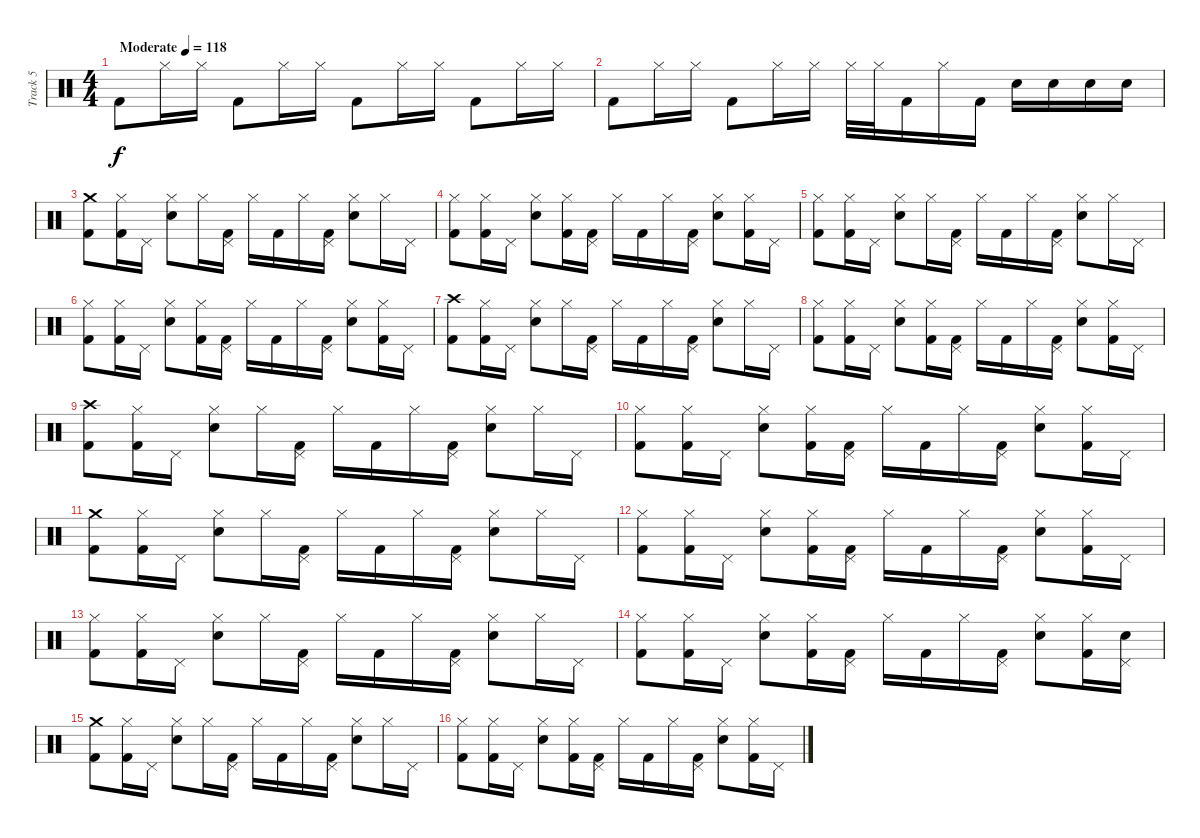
\track ("Track 5" "Track 5") {instrument percussion}
\staff {score}
\articulation defaults
\ts (4 4)
\tempo (118 "Moderate")
\clef neutral
\ks c "Kick (hit) 2".8{dy f} "Hi-Hat (closed)".16 "Hi-Hat (closed)".16 "Kick (hit) 2".8 "Hi-Hat (closed)".16 "Hi-Hat (closed)".16 "Kick (hit) 2".8 "Hi-Hat (closed)".16 "Hi-Hat (closed)".16 "Kick (hit) 2".8 "Hi-Hat (closed)".16 "Hi-Hat (closed)".16
|
"Kick (hit) 2".8 "Hi-Hat (closed)".16 "Hi-Hat (closed)".16 "Kick (hit) 2".8 "Hi-Hat (closed)".16 "Hi-Hat (closed)".16 "Hi-Hat (closed)".32 "Hi-Hat (closed)".32 "Kick (hit) 2".16 "Hi-Hat (closed)".16 "Kick (hit) 2".16 "Snare (hit) 2".16 "Snare (hit) 2".16 "Snare (hit) 2".16 "Snare (hit) 2".16 |
("Crash medium (hit)" "Kick (hit) 2").8 ("Hi-Hat (closed)" "Kick (hit) 2").16 "Pedal Hi-Hat (hit)".16 ("Hi-Hat (closed)" "Snare (hit) 2").8 "Hi-Hat (closed)".16 ("Pedal Hi-Hat (hit)" "Kick (hit) 2").16 "Hi-Hat (closed)".16 "Kick (hit) 2".16 "Hi-Hat (closed)".16 ("Pedal Hi-Hat (hit)" "Kick (hit) 2").16 ("Hi-Hat (closed)" "Snare (hit) 2").8 "Hi-Hat (closed)".16 "Pedal Hi-Hat (hit)".16 |
("Hi-Hat (closed)" "Kick (hit) 2").8 ("Hi-Hat (closed)" "Kick (hit) 2").16 "Pedal Hi-Hat (hit)".16 ("Hi-Hat (closed)" "Snare (hit) 2").8 ("Hi-Hat (closed)" "Kick (hit) 2").16 ("Pedal Hi-Hat (hit)" "Kick (hit) 2").16 "Hi-Hat (closed)".16 "Kick (hit) 2".16 "Hi-Hat (closed)".16 ("Pedal Hi-Hat (hit)" "Kick (hit) 2").16 ("Hi-Hat (closed)" "Snare (hit) 2").8 ("Hi-Hat (closed)" "Kick (hit) 2").16 "Pedal Hi-Hat (hit)".16 |
("Hi-Hat (closed)" "Kick (hit) 2").8 ("Hi-Hat (closed)" "Kick (hit) 2").16 "Pedal Hi-Hat (hit)".16 ("Hi-Hat (closed)" "Snare (hit) 2").8 "Hi-Hat (closed)".16 ("Pedal Hi-Hat (hit)" "Kick (hit) 2").16 "Hi-Hat (closed)".16 "Kick (hit) 2".16 "Hi-Hat (closed)".16 ("Pedal Hi-Hat (hit)" "Kick (hit) 2").16 ("Hi-Hat (closed)" "Snare (hit) 2").8 "Hi-Hat (closed)".16 "Pedal Hi-Hat (hit)".16 |
("Hi-Hat (closed)" "Kick (hit) 2").8 ("Hi-Hat (closed)" "Kick (hit) 2").16 "Pedal Hi-Hat (hit)".16 ("Hi-Hat (closed)" "Snare (hit) 2").8 ("Hi-Hat (closed)" "Kick (hit) 2").16 ("Pedal Hi-Hat (hit)" "Kick (hit) 2").16 "Hi-Hat (closed)".16 "Kick (hit) 2".16 "Hi-Hat (closed)".16 ("Pedal Hi-Hat (hit)" "Kick (hit) 2").16 ("Hi-Hat (closed)" "Snare (hit) 2").8 ("Hi-Hat (closed)" "Kick (hit) 2").16 "Pedal Hi-Hat (hit)".16 |
("Crash high (hit)" "Kick (hit) 2").8 ("Hi-Hat (closed)" "Kick (hit) 2").16 "Pedal Hi-Hat (hit)".16 ("Hi-Hat (closed)" "Snare (hit) 2").8 "Hi-Hat (closed)".16 ("Pedal Hi-Hat (hit)" "Kick (hit) 2").16 "Hi-Hat (closed)".16 "Kick (hit) 2".16 "Hi-Hat (closed)".16 ("Pedal Hi-Hat (hit)" "Kick (hit) 2").16 ("Hi-Hat (closed)" "Snare (hit) 2").8 "Hi-Hat (closed)".16 "Pedal Hi-Hat (hit)".16 |
("Hi-Hat (closed)" "Kick (hit) 2").8 ("Hi-Hat (closed)" "Kick (hit) 2").16 "Pedal Hi-Hat (hit)".16 ("Hi-Hat (closed)" "Snare (hit) 2").8 ("Hi-Hat (closed)" "Kick (hit) 2").16 ("Pedal Hi-Hat (hit)" "Kick (hit) 2").16 "Hi-Hat (closed)".16 "Kick (hit) 2".16 "Hi-Hat (closed)".16 ("Pedal Hi-Hat (hit)" "Kick (hit) 2").16 ("Hi-Hat (closed)" "Snare (hit) 2").8 ("Hi-Hat (closed)" "Kick (hit) 2").16 "Pedal Hi-Hat (hit)".16 |
("Crash high (hit)" "Kick (hit) 2").8 ("Hi-Hat (closed)" "Kick (hit) 2").16 "Pedal Hi-Hat (hit)".16 ("Hi-Hat (closed)" "Snare (hit) 2").8 "Hi-Hat (closed)".16 ("Pedal Hi-Hat (hit)" "Kick (hit) 2").16 "Hi-Hat (closed)".16 "Kick (hit) 2".16 "Hi-Hat (closed)".16 ("Pedal Hi-Hat (hit)" "Kick (hit) 2").16 ("Hi-Hat (closed)" "Snare (hit) 2").8 "Hi-Hat (closed)".16 "Pedal Hi-Hat (hit)".16 |
("Hi-Hat (closed)" "Kick (hit) 2").8 ("Hi-Hat (closed)" "Kick (hit) 2").16 "Pedal Hi-Hat (hit)".16 ("Hi-Hat (closed)" "Snare (hit) 2").8 ("Hi-Hat (closed)" "Kick (hit) 2").16 ("Pedal Hi-Hat (hit)" "Kick (hit) 2").16 "Hi-Hat (closed)".16 "Kick (hit) 2".16 "Hi-Hat (closed)".16 ("Pedal Hi-Hat (hit)" "Kick (hit) 2").16 ("Hi-Hat (closed)" "Snare (hit) 2").8 ("Hi-Hat (closed)" "Kick (hit) 2").16 "Pedal Hi-Hat (hit)".16 |
("Crash medium (hit)" "Kick (hit) 2").8 ("Hi-Hat (closed)" "Kick (hit) 2").16 "Pedal Hi-Hat (hit)".16 ("Hi-Hat (closed)" "Snare (hit) 2").8 "Hi-Hat (closed)".16 ("Pedal Hi-Hat (hit)" "Kick (hit) 2").16 "Hi-Hat (closed)".16 "Kick (hit) 2".16 "Hi-Hat (closed)".16 ("Pedal Hi-Hat (hit)" "Kick (hit) 2").16 ("Hi-Hat (closed)" "Snare (hit) 2").8 "Hi-Hat (closed)".16 "Pedal Hi-Hat (hit)".16 |
("Hi-Hat (closed)" "Kick (hit) 2").8 ("Hi-Hat (closed)" "Kick (hit) 2").16 "Pedal Hi-Hat (hit)".16 ("Hi-Hat (closed)" "Snare (hit) 2").8 ("Hi-Hat (closed)" "Kick (hit) 2").16 ("Pedal Hi-Hat (hit)" "Kick (hit) 2").16 "Hi-Hat (closed)".16 "Kick (hit) 2".16 "Hi-Hat (closed)".16 ("Pedal Hi-Hat (hit)" "Kick (hit) 2").16 ("Hi-Hat (closed)" "Snare (hit) 2").8 ("Hi-Hat (closed)" "Kick (hit) 2").16 "Pedal Hi-Hat (hit)".16 |
("Hi-Hat (closed)" "Kick (hit) 2").8 ("Hi-Hat (closed)" "Kick (hit) 2").16 "Pedal Hi-Hat (hit)".16 ("Hi-Hat (closed)" "Snare (hit) 2").8 "Hi-Hat (closed)".16 ("Pedal Hi-Hat (hit)" "Kick (hit) 2").16 "Hi-Hat (closed)".16 "Kick (hit) 2".16 "Hi-Hat (closed)".16 ("Pedal Hi-Hat (hit)" "Kick (hit) 2").16 ("Hi-Hat (closed)" "Snare (hit) 2").8 "Hi-Hat (closed)".16 "Pedal Hi-Hat (hit)".16 |
("Hi-Hat (closed)" "Kick (hit) 2").8 ("Hi-Hat (closed)" "Kick (hit) 2").16 "Pedal Hi-Hat (hit)".16 ("Hi-Hat (closed)" "Snare (hit) 2").8 ("Hi-Hat (closed)" "Kick (hit) 2").16 ("Pedal Hi-Hat (hit)" "Kick (hit) 2").16 "Hi-Hat (closed)".16 "Kick (hit) 2".16 "Hi-Hat (closed)".16 ("Pedal Hi-Hat (hit)" "Kick (hit) 2").16 ("Hi-Hat (closed)" "Snare (hit) 2").8 ("Hi-Hat (closed)" "Kick (hit) 2").16 ("Pedal Hi-Hat (hit)" "Snare (hit) 2").16 |
("Crash medium (hit)" "Kick (hit) 2").8 ("Hi-Hat (closed)" "Kick (hit) 2").16 "Pedal Hi-Hat (hit)".16 ("Hi-Hat (closed)" "Snare (hit) 2").8 "Hi-Hat (closed)".16 ("Pedal Hi-Hat (hit)" "Kick (hit) 2").16 "Hi-Hat (closed)".16 "Kick (hit) 2".16 "Hi-Hat (closed)".16 ("Pedal Hi-Hat (hit)" "Kick (hit) 2").16 ("Hi-Hat (closed)" "Snare (hit) 2").8 "Hi-Hat (closed)".16 "Pedal Hi-Hat (hit)".16 |
("Hi-Hat (closed)" "Kick (hit) 2").8 ("Hi-Hat (closed)" "Kick (hit) 2").16 "Pedal Hi-Hat (hit)".16 ("Hi-Hat (closed)" "Snare (hit) 2").8 ("Hi-Hat (closed)" "Kick (hit) 2").16 ("Pedal Hi-Hat (hit)" "Kick (hit) 2").16 "Hi-Hat (closed)".16 "Kick (hit) 2".16 "Hi-Hat (closed)".16 ("Pedal Hi-Hat (hit)" "Kick (hit) 2").16 ("Hi-Hat (closed)" "Snare (hit) 2").8 ("Hi-Hat (closed)" "Kick (hit) 2").16 "Pedal Hi-Hat (hit)".16
